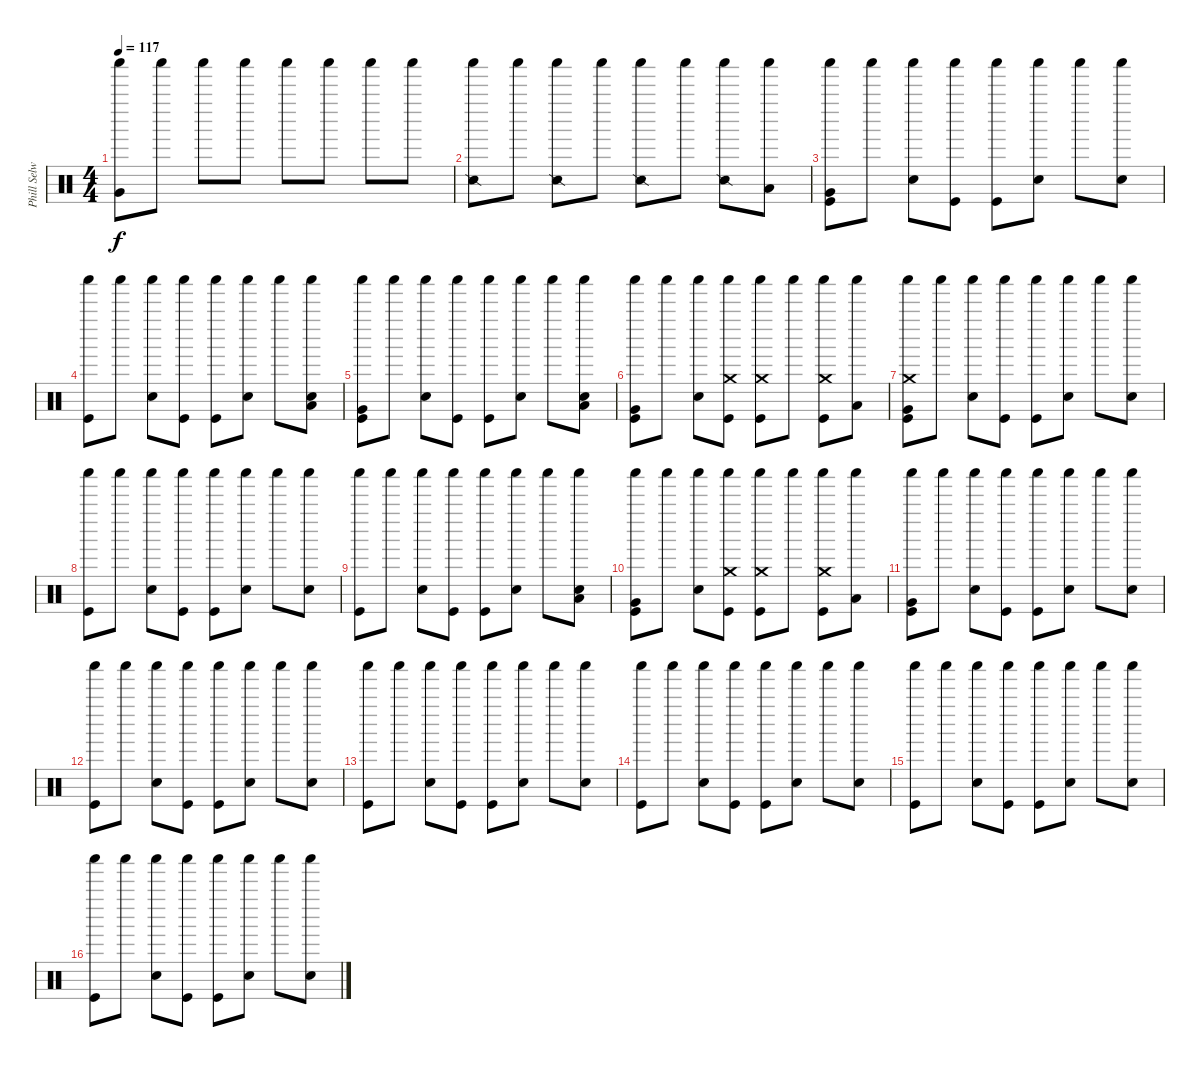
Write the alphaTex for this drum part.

\track ("Phill Selway" "Phill Selw") {instrument percussion}
\staff {score}
\articulation defaults
\ts (4 4)
\tempo 117
\clef neutral
\ks c
("Shaker (hit)" "Very Low Tom (hit)").8{dy f} "Shaker (hit)".8 "Shaker (hit)".8 "Shaker (hit)".8 "Shaker (hit)".8 "Shaker (hit)".8 "Shaker (hit)".8 "Shaker (hit)".8 |
("Shaker (hit)" "Snare (side stick) 2").8 "Shaker (hit)".8 ("Shaker (hit)" "Snare (side stick) 2").8 "Shaker (hit)".8 ("Shaker (hit)" "Snare (side stick) 2").8 "Shaker (hit)".8 ("Shaker (hit)" "Snare (side stick) 2").8 ("Shaker (hit)" "Low Tom (hit)").8 |
("Shaker (hit)" "Kick (hit)" "Very Low Tom (hit)").8 "Shaker (hit)".8 ("Shaker (hit)" "Snare (hit) 2").8 ("Shaker (hit)" "Kick (hit)").8 ("Shaker (hit)" "Kick (hit)").8 ("Shaker (hit)" "Snare (hit) 2").8 "Shaker (hit)".8 ("Shaker (hit)" "Snare (hit) 2").8 |
("Shaker (hit)" "Kick (hit)").8 "Shaker (hit)".8 ("Shaker (hit)" "Snare (hit) 2").8 ("Shaker (hit)" "Kick (hit)").8 ("Shaker (hit)" "Kick (hit)").8 ("Shaker (hit)" "Snare (hit) 2").8 "Shaker (hit)".8 ("Shaker (hit)" "Snare (hit) 2" "Low Tom (hit)").8 |
("Shaker (hit)" "Kick (hit)" "Very Low Tom (hit)").8 "Shaker (hit)".8 ("Shaker (hit)" "Snare (hit) 2").8 ("Shaker (hit)" "Kick (hit)").8 ("Shaker (hit)" "Kick (hit)").8 ("Shaker (hit)" "Snare (hit) 2").8 "Shaker (hit)".8 ("Shaker (hit)" "Low Tom (hit)" "Snare (hit) 2").8 |
("Shaker (hit)" "Kick (hit)" "Very Low Tom (hit)").8 "Shaker (hit)".8 ("Shaker (hit)" "Snare (hit) 2").8 ("Shaker (hit)" "Crash medium (hit)" "Kick (hit)").8 ("Shaker (hit)" "Crash medium (hit)" "Kick (hit)").8 "Shaker (hit)".8 ("Shaker (hit)" "Crash medium (hit)" "Kick (hit)").8 ("Shaker (hit)" "Low Tom (hit)").8 |
("Shaker (hit)" "Crash medium (hit)" "Kick (hit)" "Very Low Tom (hit)").8 "Shaker (hit)".8 ("Shaker (hit)" "Snare (hit) 2").8 ("Shaker (hit)" "Kick (hit)").8 ("Shaker (hit)" "Kick (hit)").8 ("Shaker (hit)" "Snare (hit) 2").8 "Shaker (hit)".8 ("Shaker (hit)" "Snare (hit) 2").8 |
("Shaker (hit)" "Kick (hit)").8 "Shaker (hit)".8 ("Shaker (hit)" "Snare (hit) 2").8 ("Shaker (hit)" "Kick (hit)").8 ("Shaker (hit)" "Kick (hit)").8 ("Shaker (hit)" "Snare (hit) 2").8 "Shaker (hit)".8 ("Shaker (hit)" "Snare (hit) 2").8 |
("Shaker (hit)" "Kick (hit)").8 "Shaker (hit)".8 ("Shaker (hit)" "Snare (hit) 2").8 ("Shaker (hit)" "Kick (hit)").8 ("Shaker (hit)" "Kick (hit)").8 ("Shaker (hit)" "Snare (hit) 2").8 "Shaker (hit)".8 ("Shaker (hit)" "Snare (hit) 2" "Low Tom (hit)").8 |
("Shaker (hit)" "Kick (hit)" "Very Low Tom (hit)").8 "Shaker (hit)".8 ("Shaker (hit)" "Snare (hit) 2").8 ("Shaker (hit)" "Crash medium (hit)" "Kick (hit)").8 ("Shaker (hit)" "Crash medium (hit)" "Kick (hit)").8 "Shaker (hit)".8 ("Shaker (hit)" "Crash medium (hit)" "Kick (hit)").8 ("Shaker (hit)" "Low Tom (hit)").8 |
("Shaker (hit)" "Kick (hit)" "Very Low Tom (hit)").8 "Shaker (hit)".8 ("Shaker (hit)" "Snare (hit) 2").8 ("Shaker (hit)" "Kick (hit)").8 ("Shaker (hit)" "Kick (hit)").8 ("Shaker (hit)" "Snare (hit) 2").8 "Shaker (hit)".8 ("Shaker (hit)" "Snare (hit) 2").8 |
("Shaker (hit)" "Kick (hit)").8 "Shaker (hit)".8 ("Shaker (hit)" "Snare (hit) 2").8 ("Shaker (hit)" "Kick (hit)").8 ("Shaker (hit)" "Kick (hit)").8 ("Shaker (hit)" "Snare (hit) 2").8 "Shaker (hit)".8 ("Shaker (hit)" "Snare (hit) 2").8 |
("Shaker (hit)" "Kick (hit)").8 "Shaker (hit)".8 ("Shaker (hit)" "Snare (hit) 2").8 ("Shaker (hit)" "Kick (hit)").8 ("Shaker (hit)" "Kick (hit)").8 ("Shaker (hit)" "Snare (hit) 2").8 "Shaker (hit)".8 ("Shaker (hit)" "Snare (hit) 2").8 |
("Shaker (hit)" "Kick (hit)").8 "Shaker (hit)".8 ("Shaker (hit)" "Snare (hit) 2").8 ("Shaker (hit)" "Kick (hit)").8 ("Shaker (hit)" "Kick (hit)").8 ("Shaker (hit)" "Snare (hit) 2").8 "Shaker (hit)".8 ("Shaker (hit)" "Snare (hit) 2").8 |
("Shaker (hit)" "Kick (hit)").8 "Shaker (hit)".8 ("Shaker (hit)" "Snare (hit) 2").8 ("Shaker (hit)" "Kick (hit)").8 ("Shaker (hit)" "Kick (hit)").8 ("Shaker (hit)" "Snare (hit) 2").8 "Shaker (hit)".8 ("Shaker (hit)" "Snare (hit) 2").8 |
("Shaker (hit)" "Kick (hit)").8 "Shaker (hit)".8 ("Shaker (hit)" "Snare (hit) 2").8 ("Shaker (hit)" "Kick (hit)").8 ("Shaker (hit)" "Kick (hit)").8 ("Shaker (hit)" "Snare (hit) 2").8 "Shaker (hit)".8 ("Shaker (hit)" "Snare (hit) 2").8
